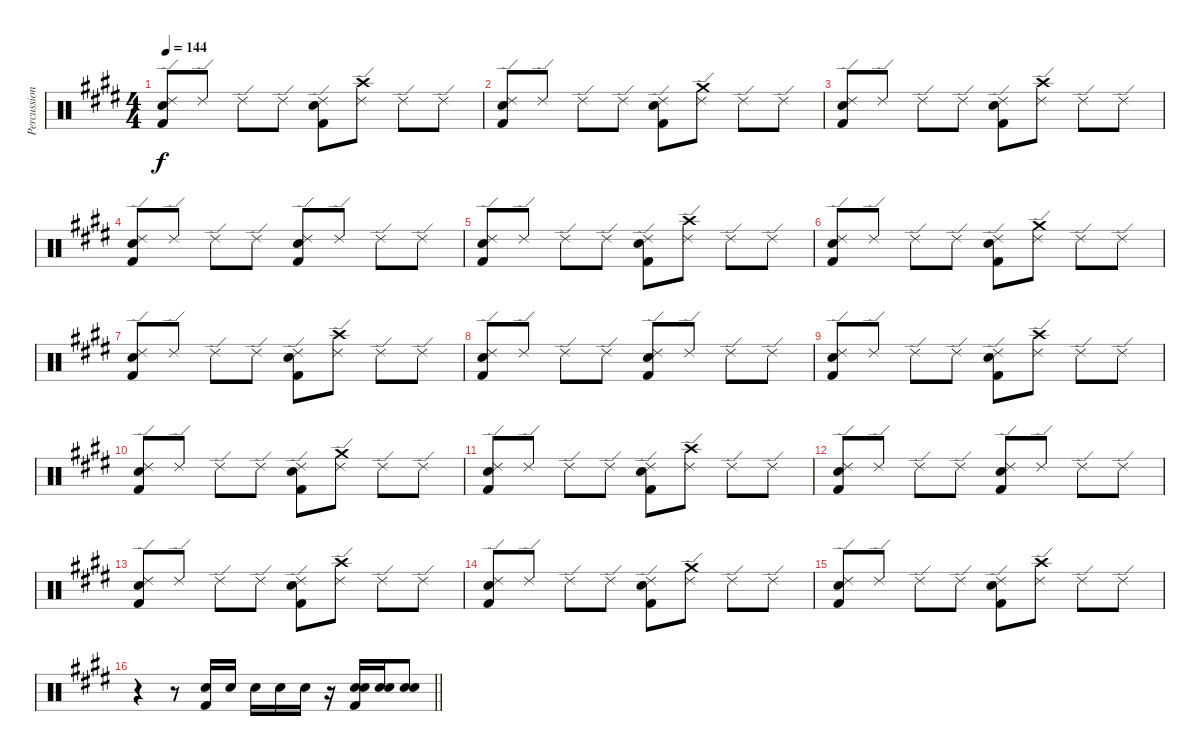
\track ("Percussion" "Percussion") {instrument percussion}
\staff {score}
\articulation defaults
\ts (4 4)
\tempo 144
\clef neutral
\ks c#minor
("Ride (edge) 2" "Snare (hit) 2" "Kick (hit) 2").8{dy f} "Ride (edge) 2".8 "Ride (edge) 2".8 "Ride (edge) 2".8 ("Ride (edge) 2" "Snare (hit) 2" "Kick (hit) 2").8 ("Ride (edge) 2" "Crash high (hit)").8 "Ride (edge) 2".8 "Ride (edge) 2".8 |
("Ride (edge) 2" "Snare (hit) 2" "Kick (hit) 2").8 "Ride (edge) 2".8 "Ride (edge) 2".8 "Ride (edge) 2".8 ("Ride (edge) 2" "Snare (hit) 2" "Kick (hit) 2").8 ("Ride (edge) 2" "Crash medium (hit)").8 "Ride (edge) 2".8 "Ride (edge) 2".8 |
("Ride (edge) 2" "Snare (hit) 2" "Kick (hit) 2").8 "Ride (edge) 2".8 "Ride (edge) 2".8 "Ride (edge) 2".8 ("Ride (edge) 2" "Snare (hit) 2" "Kick (hit) 2").8 ("Ride (edge) 2" "Crash high (hit)").8 "Ride (edge) 2".8 "Ride (edge) 2".8 |
\ks e
("Ride (edge) 2" "Snare (hit) 2" "Kick (hit) 2").8 "Ride (edge) 2".8 "Ride (edge) 2".8 "Ride (edge) 2".8 ("Ride (edge) 2" "Snare (hit) 2" "Kick (hit) 2").8 "Ride (edge) 2".8 "Ride (edge) 2".8 "Ride (edge) 2".8 |
\ks c#minor
("Ride (edge) 2" "Snare (hit) 2" "Kick (hit) 2").8 "Ride (edge) 2".8 "Ride (edge) 2".8 "Ride (edge) 2".8 ("Ride (edge) 2" "Snare (hit) 2" "Kick (hit) 2").8 ("Ride (edge) 2" "Crash high (hit)").8 "Ride (edge) 2".8 "Ride (edge) 2".8 |
("Ride (edge) 2" "Snare (hit) 2" "Kick (hit) 2").8 "Ride (edge) 2".8 "Ride (edge) 2".8 "Ride (edge) 2".8 ("Ride (edge) 2" "Snare (hit) 2" "Kick (hit) 2").8 ("Ride (edge) 2" "Crash medium (hit)").8 "Ride (edge) 2".8 "Ride (edge) 2".8 |
("Ride (edge) 2" "Snare (hit) 2" "Kick (hit) 2").8 "Ride (edge) 2".8 "Ride (edge) 2".8 "Ride (edge) 2".8 ("Ride (edge) 2" "Snare (hit) 2" "Kick (hit) 2").8 ("Ride (edge) 2" "Crash high (hit)").8 "Ride (edge) 2".8 "Ride (edge) 2".8 |
\ks e
("Ride (edge) 2" "Snare (hit) 2" "Kick (hit) 2").8 "Ride (edge) 2".8 "Ride (edge) 2".8 "Ride (edge) 2".8 ("Ride (edge) 2" "Snare (hit) 2" "Kick (hit) 2").8 "Ride (edge) 2".8 "Ride (edge) 2".8 "Ride (edge) 2".8 |
\ks c#minor
("Ride (edge) 2" "Snare (hit) 2" "Kick (hit) 2").8 "Ride (edge) 2".8 "Ride (edge) 2".8 "Ride (edge) 2".8 ("Ride (edge) 2" "Snare (hit) 2" "Kick (hit) 2").8 ("Ride (edge) 2" "Crash high (hit)").8 "Ride (edge) 2".8 "Ride (edge) 2".8 |
("Ride (edge) 2" "Snare (hit) 2" "Kick (hit) 2").8 "Ride (edge) 2".8 "Ride (edge) 2".8 "Ride (edge) 2".8 ("Ride (edge) 2" "Snare (hit) 2" "Kick (hit) 2").8 ("Ride (edge) 2" "Crash medium (hit)").8 "Ride (edge) 2".8 "Ride (edge) 2".8 |
("Ride (edge) 2" "Snare (hit) 2" "Kick (hit) 2").8 "Ride (edge) 2".8 "Ride (edge) 2".8 "Ride (edge) 2".8 ("Ride (edge) 2" "Snare (hit) 2" "Kick (hit) 2").8 ("Ride (edge) 2" "Crash high (hit)").8 "Ride (edge) 2".8 "Ride (edge) 2".8 |
\ks e
("Ride (edge) 2" "Snare (hit) 2" "Kick (hit) 2").8 "Ride (edge) 2".8 "Ride (edge) 2".8 "Ride (edge) 2".8 ("Ride (edge) 2" "Snare (hit) 2" "Kick (hit) 2").8 "Ride (edge) 2".8 "Ride (edge) 2".8 "Ride (edge) 2".8 |
\ks c#minor
("Ride (edge) 2" "Snare (hit) 2" "Kick (hit) 2").8 "Ride (edge) 2".8 "Ride (edge) 2".8 "Ride (edge) 2".8 ("Ride (edge) 2" "Snare (hit) 2" "Kick (hit) 2").8 ("Ride (edge) 2" "Crash high (hit)").8 "Ride (edge) 2".8 "Ride (edge) 2".8 |
("Ride (edge) 2" "Snare (hit) 2" "Kick (hit) 2").8 "Ride (edge) 2".8 "Ride (edge) 2".8 "Ride (edge) 2".8 ("Ride (edge) 2" "Snare (hit) 2" "Kick (hit) 2").8 ("Ride (edge) 2" "Crash medium (hit)").8 "Ride (edge) 2".8 "Ride (edge) 2".8 |
("Ride (edge) 2" "Snare (hit) 2" "Kick (hit) 2").8 "Ride (edge) 2".8 "Ride (edge) 2".8 "Ride (edge) 2".8 ("Ride (edge) 2" "Snare (hit) 2" "Kick (hit) 2").8 ("Ride (edge) 2" "Crash high (hit)").8 "Ride (edge) 2".8 "Ride (edge) 2".8 |
\barLineRight lightlight
r.4 r.8 ("Snare (hit) 2" "Kick (hit) 2").16 "Snare (hit) 2".16 "Snare (hit) 2".16 "Snare (hit) 2".16 "Snare (hit) 2".16 r.16 ("Snare (hit) 2" "Snare (hit) 2" "Kick (hit) 2").16 ("Snare (hit) 2" "Snare (hit) 2").16 ("Snare (hit) 2" "Snare (hit) 2").8
